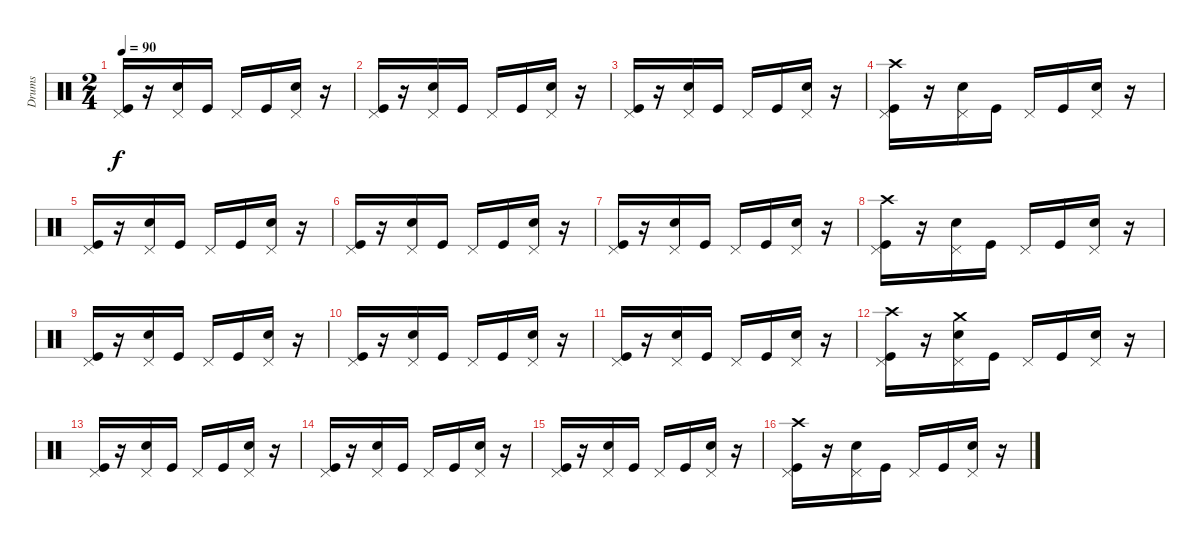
\track ("Drums" "Drums") {instrument percussion}
\staff {score}
\articulation defaults
\ts (2 4)
\tempo 90
\clef neutral
\ks c
("Kick (hit)" "Pedal Hi-Hat (hit)").16{dy f} r.16 ("Snare (hit) 2" "Pedal Hi-Hat (hit)").16 "Kick (hit)".16 "Pedal Hi-Hat (hit)".16 "Kick (hit)".16 ("Snare (hit) 2" "Pedal Hi-Hat (hit)").16 r.16 |
("Kick (hit)" "Pedal Hi-Hat (hit)").16 r.16 ("Snare (hit) 2" "Pedal Hi-Hat (hit)").16 "Kick (hit)".16 "Pedal Hi-Hat (hit)".16 "Kick (hit)".16 ("Snare (hit) 2" "Pedal Hi-Hat (hit)").16 r.16 |
("Kick (hit)" "Pedal Hi-Hat (hit)").16 r.16 ("Snare (hit) 2" "Pedal Hi-Hat (hit)").16 "Kick (hit)".16 "Pedal Hi-Hat (hit)".16 "Kick (hit)".16 ("Snare (hit) 2" "Pedal Hi-Hat (hit)").16 r.16 |
("Crash high (hit)" "Kick (hit)" "Pedal Hi-Hat (hit)").16 r.16 ("Snare (hit) 2" "Pedal Hi-Hat (hit)").16 "Kick (hit)".16 "Pedal Hi-Hat (hit)".16 "Kick (hit)".16 ("Snare (hit) 2" "Pedal Hi-Hat (hit)").16 r.16 |
("Kick (hit)" "Pedal Hi-Hat (hit)").16 r.16 ("Snare (hit) 2" "Pedal Hi-Hat (hit)").16 "Kick (hit)".16 "Pedal Hi-Hat (hit)".16 "Kick (hit)".16 ("Snare (hit) 2" "Pedal Hi-Hat (hit)").16 r.16 |
("Kick (hit)" "Pedal Hi-Hat (hit)").16 r.16 ("Snare (hit) 2" "Pedal Hi-Hat (hit)").16 "Kick (hit)".16 "Pedal Hi-Hat (hit)".16 "Kick (hit)".16 ("Snare (hit) 2" "Pedal Hi-Hat (hit)").16 r.16 |
("Kick (hit)" "Pedal Hi-Hat (hit)").16 r.16 ("Snare (hit) 2" "Pedal Hi-Hat (hit)").16 "Kick (hit)".16 "Pedal Hi-Hat (hit)".16 "Kick (hit)".16 ("Snare (hit) 2" "Pedal Hi-Hat (hit)").16 r.16 |
("Crash high (hit)" "Kick (hit)" "Pedal Hi-Hat (hit)").16 r.16 ("Snare (hit) 2" "Pedal Hi-Hat (hit)").16 "Kick (hit)".16 "Pedal Hi-Hat (hit)".16 "Kick (hit)".16 ("Snare (hit) 2" "Pedal Hi-Hat (hit)").16 r.16 |
("Kick (hit)" "Pedal Hi-Hat (hit)").16 r.16 ("Snare (hit) 2" "Pedal Hi-Hat (hit)").16 "Kick (hit)".16 "Pedal Hi-Hat (hit)".16 "Kick (hit)".16 ("Snare (hit) 2" "Pedal Hi-Hat (hit)").16 r.16 |
("Kick (hit)" "Pedal Hi-Hat (hit)").16 r.16 ("Snare (hit) 2" "Pedal Hi-Hat (hit)").16 "Kick (hit)".16 "Pedal Hi-Hat (hit)".16 "Kick (hit)".16 ("Snare (hit) 2" "Pedal Hi-Hat (hit)").16 r.16 |
("Kick (hit)" "Pedal Hi-Hat (hit)").16 r.16 ("Snare (hit) 2" "Pedal Hi-Hat (hit)").16 "Kick (hit)".16 "Pedal Hi-Hat (hit)".16 "Kick (hit)".16 ("Snare (hit) 2" "Pedal Hi-Hat (hit)").16 r.16 |
("Crash high (hit)" "Kick (hit)" "Pedal Hi-Hat (hit)").16 r.16 ("Crash medium (hit)" "Snare (hit) 2" "Pedal Hi-Hat (hit)").16 "Kick (hit)".16 "Pedal Hi-Hat (hit)".16 "Kick (hit)".16 ("Snare (hit) 2" "Pedal Hi-Hat (hit)").16 r.16 |
("Kick (hit)" "Pedal Hi-Hat (hit)").16 r.16 ("Snare (hit) 2" "Pedal Hi-Hat (hit)").16 "Kick (hit)".16 "Pedal Hi-Hat (hit)".16 "Kick (hit)".16 ("Snare (hit) 2" "Pedal Hi-Hat (hit)").16 r.16 |
("Kick (hit)" "Pedal Hi-Hat (hit)").16 r.16 ("Snare (hit) 2" "Pedal Hi-Hat (hit)").16 "Kick (hit)".16 "Pedal Hi-Hat (hit)".16 "Kick (hit)".16 ("Snare (hit) 2" "Pedal Hi-Hat (hit)").16 r.16 |
("Kick (hit)" "Pedal Hi-Hat (hit)").16 r.16 ("Snare (hit) 2" "Pedal Hi-Hat (hit)").16 "Kick (hit)".16 "Pedal Hi-Hat (hit)".16 "Kick (hit)".16 ("Snare (hit) 2" "Pedal Hi-Hat (hit)").16 r.16 |
("Crash high (hit)" "Kick (hit)" "Pedal Hi-Hat (hit)").16 r.16 ("Snare (hit) 2" "Pedal Hi-Hat (hit)").16 "Kick (hit)".16 "Pedal Hi-Hat (hit)".16 "Kick (hit)".16 ("Snare (hit) 2" "Pedal Hi-Hat (hit)").16 r.16
